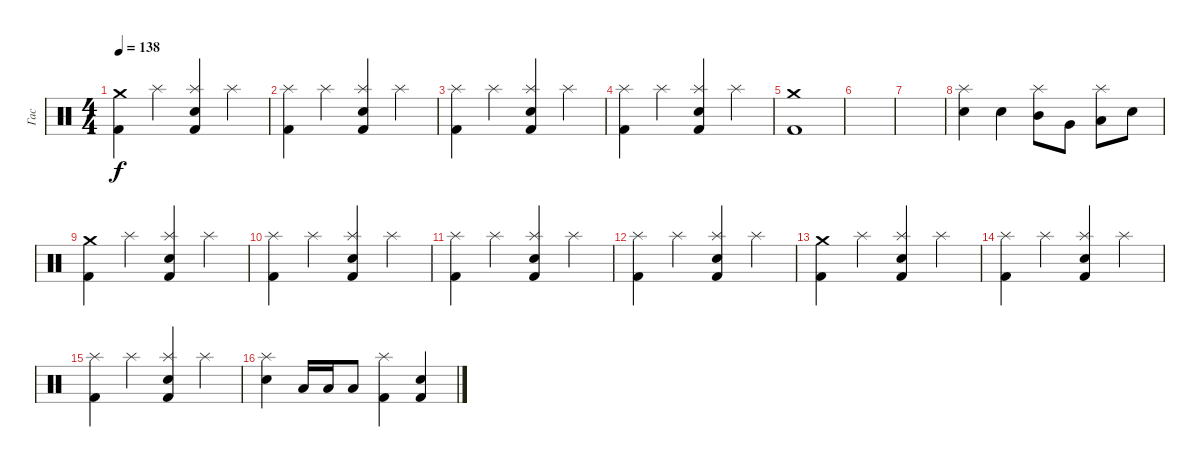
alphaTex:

\track ("Гас" "Гас") {instrument percussion}
\staff {score}
\articulation defaults
\ts (4 4)
\tempo 138
\clef neutral
\ks c
("Crash medium (hit)" "Kick (hit) 2").4{dy f} "Splash (hit)".4 ("Splash (hit)" "Electric Snare (hit)" "Kick (hit) 2").4 "Splash (hit)".4 |
("Splash (hit)" "Kick (hit) 2").4 "Splash (hit)".4 ("Splash (hit)" "Electric Snare (hit)" "Kick (hit) 2").4 "Splash (hit)".4 |
("Splash (hit)" "Kick (hit) 2").4 "Splash (hit)".4 ("Splash (hit)" "Electric Snare (hit)" "Kick (hit) 2").4 "Splash (hit)".4 |
("Splash (hit)" "Kick (hit) 2").4 "Splash (hit)".4 ("Splash (hit)" "Electric Snare (hit)" "Kick (hit) 2").4 "Splash (hit)".4 |
("Crash medium (hit)" "Kick (hit) 2").1 |
|
|
("Electric Snare (hit)" "Splash (hit)").4 "Electric Snare (hit)".4 ("Mid Tom (hit)" "Splash (hit)").8 "Very Low Tom (hit)".8 ("Low Floor Tom (hit)" "Splash (hit)").8 "Electric Snare (hit)".8 |
("Crash medium (hit)" "Kick (hit) 2").4 "Splash (hit)".4 ("Splash (hit)" "Electric Snare (hit)" "Kick (hit) 2").4 "Splash (hit)".4 |
("Splash (hit)" "Kick (hit) 2").4 "Splash (hit)".4 ("Splash (hit)" "Electric Snare (hit)" "Kick (hit) 2").4 "Splash (hit)".4 |
("Splash (hit)" "Kick (hit) 2").4 "Splash (hit)".4 ("Splash (hit)" "Electric Snare (hit)" "Kick (hit) 2").4 "Splash (hit)".4 |
("Splash (hit)" "Kick (hit) 2").4 "Splash (hit)".4 ("Splash (hit)" "Electric Snare (hit)" "Kick (hit) 2").4 "Splash (hit)".4 |
("Crash medium (hit)" "Kick (hit) 2").4 "Splash (hit)".4 ("Splash (hit)" "Electric Snare (hit)" "Kick (hit) 2").4 "Splash (hit)".4 |
("Splash (hit)" "Kick (hit) 2").4 "Splash (hit)".4 ("Splash (hit)" "Electric Snare (hit)" "Kick (hit) 2").4 "Splash (hit)".4 |
("Splash (hit)" "Kick (hit) 2").4 "Splash (hit)".4 ("Splash (hit)" "Electric Snare (hit)" "Kick (hit) 2").4 "Splash (hit)".4 |
("Splash (hit)" "Electric Snare (hit)").4 "Low Floor Tom (hit)".16 "Low Floor Tom (hit)".16 "Low Floor Tom (hit)".8 ("Splash (hit)" "Kick (hit) 2").4 ("Electric Snare (hit)" "Kick (hit) 2").4
